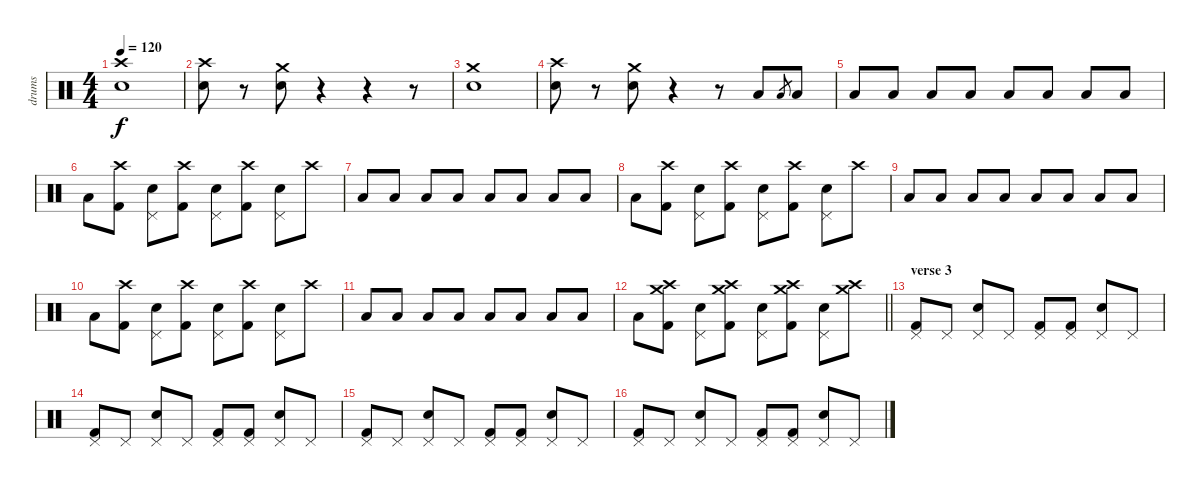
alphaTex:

\track ("drums" "drums") {instrument percussion}
\staff {score}
\articulation defaults
\ts (4 4)
\tempo 120
\clef neutral
\ks c
("Electric Snare (hit)" "Crash high (hit)").1{dy f} |
("Electric Snare (hit)" "Crash high (hit)").8 r.8 ("Electric Snare (hit)" "Crash medium (hit)").8 r.4 r.4 r.8 |
("Electric Snare (hit)" "Crash medium (hit)").1 |
("Electric Snare (hit)" "Crash high (hit)").8 r.8 ("Electric Snare (hit)" "Crash medium (hit)").8 r.4 r.8 "Low Tom (hit)".8 "Low Tom (hit)".8{gr} "Low Tom (hit)".8 |
"Low Floor Tom (hit)".8 "Low Floor Tom (hit)".8 "Low Floor Tom (hit)".8 "Low Floor Tom (hit)".8 "Low Floor Tom (hit)".8 "Low Floor Tom (hit)".8 "Low Floor Tom (hit)".8 "Low Floor Tom (hit)".8 |
"Low Floor Tom (hit)".8 ("Kick (hit) 2" "Crash high (hit)").8 ("Electric Snare (hit)" "Pedal Hi-Hat (hit)").8 ("Kick (hit) 2" "Crash high (hit)").8 ("Electric Snare (hit)" "Pedal Hi-Hat (hit)").8 ("Kick (hit) 2" "Crash high (hit)").8 ("Electric Snare (hit)" "Pedal Hi-Hat (hit)").8 "Crash high (hit)".8 |
"Low Floor Tom (hit)".8 "Low Floor Tom (hit)".8 "Low Floor Tom (hit)".8 "Low Floor Tom (hit)".8 "Low Floor Tom (hit)".8 "Low Floor Tom (hit)".8 "Low Floor Tom (hit)".8 "Low Floor Tom (hit)".8 |
"Low Floor Tom (hit)".8 ("Kick (hit) 2" "Crash high (hit)").8 ("Electric Snare (hit)" "Pedal Hi-Hat (hit)").8 ("Kick (hit) 2" "Crash high (hit)").8 ("Electric Snare (hit)" "Pedal Hi-Hat (hit)").8 ("Kick (hit) 2" "Crash high (hit)").8 ("Electric Snare (hit)" "Pedal Hi-Hat (hit)").8 "Crash high (hit)".8 |
"Low Floor Tom (hit)".8 "Low Floor Tom (hit)".8 "Low Floor Tom (hit)".8 "Low Floor Tom (hit)".8 "Low Floor Tom (hit)".8 "Low Floor Tom (hit)".8 "Low Floor Tom (hit)".8 "Low Floor Tom (hit)".8 |
"Low Floor Tom (hit)".8 ("Kick (hit) 2" "Crash high (hit)").8 ("Electric Snare (hit)" "Pedal Hi-Hat (hit)").8 ("Kick (hit) 2" "Crash high (hit)").8 ("Electric Snare (hit)" "Pedal Hi-Hat (hit)").8 ("Kick (hit) 2" "Crash high (hit)").8 ("Electric Snare (hit)" "Pedal Hi-Hat (hit)").8 "Crash high (hit)".8 |
"Low Floor Tom (hit)".8 "Low Floor Tom (hit)".8 "Low Floor Tom (hit)".8 "Low Floor Tom (hit)".8 "Low Floor Tom (hit)".8 "Low Floor Tom (hit)".8 "Low Floor Tom (hit)".8 "Low Floor Tom (hit)".8 |
\barLineRight lightlight "Low Floor Tom (hit)".8
("Kick (hit) 2" "Crash medium (hit)" "Crash high (hit)").8 ("Electric Snare (hit)" "Pedal Hi-Hat (hit)").8 ("Kick (hit) 2" "Crash medium (hit)" "Crash high (hit)").8 ("Electric Snare (hit)" "Pedal Hi-Hat (hit)").8 ("Kick (hit) 2" "Crash medium (hit)" "Crash high (hit)").8 ("Electric Snare (hit)" "Pedal Hi-Hat (hit)").8 ("Crash medium (hit)" "Crash high (hit)").8 |
\section ("" "verse 3")
("Kick (hit) 2" "Pedal Hi-Hat (hit)").8 "Pedal Hi-Hat (hit)".8 ("Electric Snare (hit)" "Pedal Hi-Hat (hit)").8 "Pedal Hi-Hat (hit)".8 ("Kick (hit) 2" "Pedal Hi-Hat (hit)").8 ("Kick (hit) 2" "Pedal Hi-Hat (hit)").8 ("Electric Snare (hit)" "Pedal Hi-Hat (hit)").8 "Pedal Hi-Hat (hit)".8 |
("Kick (hit) 2" "Pedal Hi-Hat (hit)").8 "Pedal Hi-Hat (hit)".8 ("Electric Snare (hit)" "Pedal Hi-Hat (hit)").8 "Pedal Hi-Hat (hit)".8 ("Kick (hit) 2" "Pedal Hi-Hat (hit)").8 ("Kick (hit) 2" "Pedal Hi-Hat (hit)").8 ("Electric Snare (hit)" "Pedal Hi-Hat (hit)").8 "Pedal Hi-Hat (hit)".8 |
("Kick (hit) 2" "Pedal Hi-Hat (hit)").8 "Pedal Hi-Hat (hit)".8 ("Electric Snare (hit)" "Pedal Hi-Hat (hit)").8 "Pedal Hi-Hat (hit)".8 ("Kick (hit) 2" "Pedal Hi-Hat (hit)").8 ("Kick (hit) 2" "Pedal Hi-Hat (hit)").8 ("Electric Snare (hit)" "Pedal Hi-Hat (hit)").8 "Pedal Hi-Hat (hit)".8 |
("Kick (hit) 2" "Pedal Hi-Hat (hit)").8 "Pedal Hi-Hat (hit)".8 ("Electric Snare (hit)" "Pedal Hi-Hat (hit)").8 "Pedal Hi-Hat (hit)".8 ("Kick (hit) 2" "Pedal Hi-Hat (hit)").8 ("Kick (hit) 2" "Pedal Hi-Hat (hit)").8 ("Electric Snare (hit)" "Pedal Hi-Hat (hit)").8 "Pedal Hi-Hat (hit)".8
